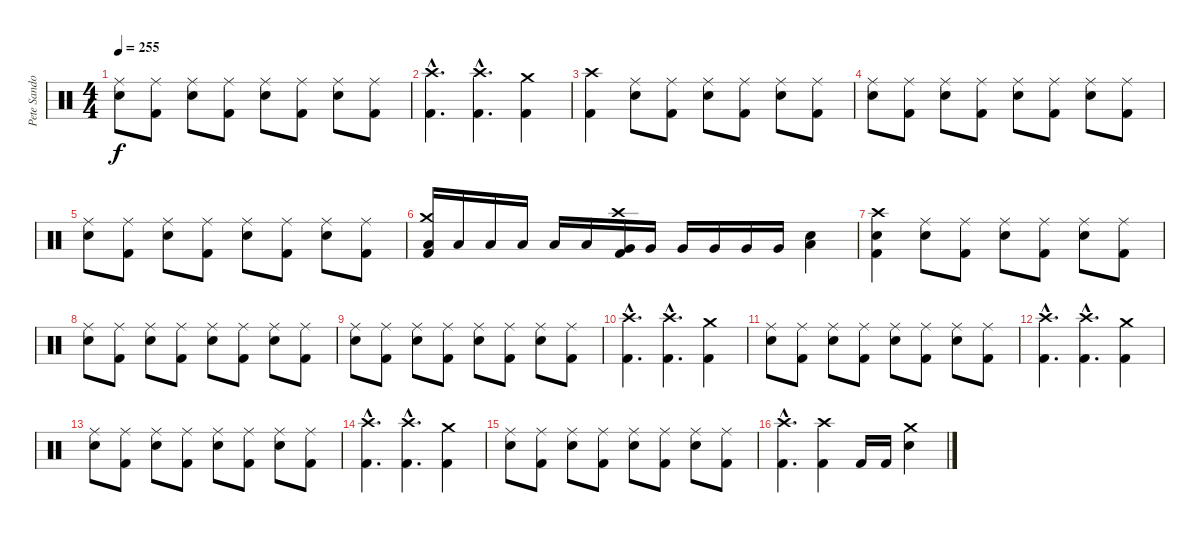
\track ("Pete Sandoval" "Pete Sando") {instrument percussion}
\staff {score}
\articulation defaults
\ts (4 4)
\tempo 255
\clef neutral
\ks c
("Ride (middle)" "Electric Snare (hit)").8{dy f} ("Ride (middle)" "Kick (hit) 2").8 ("Ride (middle)" "Electric Snare (hit)").8 ("Ride (middle)" "Kick (hit) 2").8 ("Ride (middle)" "Electric Snare (hit)").8 ("Ride (middle)" "Kick (hit) 2").8 ("Ride (middle)" "Electric Snare (hit)").8 ("Ride (middle)" "Kick (hit) 2").8 |
("Crash high (hit)"{hac} "Kick (hit) 2"{hac}).4{d} ("Crash high (hit)"{hac} "Kick (hit) 2"{hac}).4{d} ("Crash medium (hit)" "Kick (hit) 2").4 |
("Crash high (hit)" "Kick (hit) 2").4 ("Ride (middle)" "Electric Snare (hit)").8 ("Ride (middle)" "Kick (hit) 2").8 ("Ride (middle)" "Electric Snare (hit)").8 ("Ride (middle)" "Kick (hit) 2").8 ("Ride (middle)" "Electric Snare (hit)").8 ("Ride (middle)" "Kick (hit) 2").8 |
("Ride (middle)" "Electric Snare (hit)").8 ("Ride (middle)" "Kick (hit) 2").8 ("Ride (middle)" "Electric Snare (hit)").8 ("Ride (middle)" "Kick (hit) 2").8 ("Ride (middle)" "Electric Snare (hit)").8 ("Ride (middle)" "Kick (hit) 2").8 ("Ride (middle)" "Electric Snare (hit)").8 ("Ride (middle)" "Kick (hit) 2").8 |
("Ride (middle)" "Electric Snare (hit)").8 ("Ride (middle)" "Kick (hit) 2").8 ("Ride (middle)" "Electric Snare (hit)").8 ("Ride (middle)" "Kick (hit) 2").8 ("Ride (middle)" "Electric Snare (hit)").8 ("Ride (middle)" "Kick (hit) 2").8 ("Ride (middle)" "Electric Snare (hit)").8 ("Ride (middle)" "Kick (hit) 2").8 |
("Crash medium (hit)" "Kick (hit) 2" "Low Tom (hit)").16 "Low Tom (hit)".16 "Low Tom (hit)".16 "Low Tom (hit)".16 "Low Tom (hit)".16 "Low Tom (hit)".16 ("Crash high (hit)" "Kick (hit) 2" "Very Low Tom (hit)").16 "Very Low Tom (hit)".16 "Very Low Tom (hit)".16 "Very Low Tom (hit)".16 "Very Low Tom (hit)".16 "Very Low Tom (hit)".16 ("Low Tom (hit)" "Electric Snare (hit)").4 |
("Crash high (hit)" "Electric Snare (hit)" "Kick (hit) 2").4 ("Ride (middle)" "Electric Snare (hit)").8 ("Ride (middle)" "Kick (hit) 2").8 ("Ride (middle)" "Electric Snare (hit)").8 ("Ride (middle)" "Kick (hit) 2").8 ("Ride (middle)" "Electric Snare (hit)").8 ("Ride (middle)" "Kick (hit) 2").8 |
("Ride (middle)" "Electric Snare (hit)").8 ("Ride (middle)" "Kick (hit) 2").8 ("Ride (middle)" "Electric Snare (hit)").8 ("Ride (middle)" "Kick (hit) 2").8 ("Ride (middle)" "Electric Snare (hit)").8 ("Ride (middle)" "Kick (hit) 2").8 ("Ride (middle)" "Electric Snare (hit)").8 ("Ride (middle)" "Kick (hit) 2").8 |
("Ride (middle)" "Electric Snare (hit)").8 ("Ride (middle)" "Kick (hit) 2").8 ("Ride (middle)" "Electric Snare (hit)").8 ("Ride (middle)" "Kick (hit) 2").8 ("Ride (middle)" "Electric Snare (hit)").8 ("Ride (middle)" "Kick (hit) 2").8 ("Ride (middle)" "Electric Snare (hit)").8 ("Ride (middle)" "Kick (hit) 2").8 |
("Crash high (hit)"{hac} "Kick (hit) 2"{hac}).4{d} ("Crash high (hit)"{hac} "Kick (hit) 2"{hac}).4{d} ("Crash medium (hit)" "Kick (hit) 2").4 |
("Ride (middle)" "Electric Snare (hit)").8 ("Ride (middle)" "Kick (hit) 2").8 ("Ride (middle)" "Electric Snare (hit)").8 ("Ride (middle)" "Kick (hit) 2").8 ("Ride (middle)" "Electric Snare (hit)").8 ("Ride (middle)" "Kick (hit) 2").8 ("Ride (middle)" "Electric Snare (hit)").8 ("Ride (middle)" "Kick (hit) 2").8 |
("Crash high (hit)"{hac} "Kick (hit) 2"{hac}).4{d} ("Crash high (hit)"{hac} "Kick (hit) 2"{hac}).4{d} ("Crash medium (hit)" "Kick (hit) 2").4 |
("Ride (middle)" "Electric Snare (hit)").8 ("Ride (middle)" "Kick (hit) 2").8 ("Ride (middle)" "Electric Snare (hit)").8 ("Ride (middle)" "Kick (hit) 2").8 ("Ride (middle)" "Electric Snare (hit)").8 ("Ride (middle)" "Kick (hit) 2").8 ("Ride (middle)" "Electric Snare (hit)").8 ("Ride (middle)" "Kick (hit) 2").8 |
("Crash high (hit)"{hac} "Kick (hit) 2"{hac}).4{d} ("Crash high (hit)"{hac} "Kick (hit) 2"{hac}).4{d} ("Crash medium (hit)" "Kick (hit) 2").4 |
("Ride (middle)" "Electric Snare (hit)").8 ("Ride (middle)" "Kick (hit) 2").8 ("Ride (middle)" "Electric Snare (hit)").8 ("Ride (middle)" "Kick (hit) 2").8 ("Ride (middle)" "Electric Snare (hit)").8 ("Ride (middle)" "Kick (hit) 2").8 ("Ride (middle)" "Electric Snare (hit)").8 ("Ride (middle)" "Kick (hit) 2").8 |
("Crash high (hit)"{hac} "Kick (hit) 2"{hac}).4{d} ("Crash high (hit)" "Kick (hit) 2").4 "Kick (hit) 2".16 "Kick (hit) 2".16 ("Crash medium (hit)" "Electric Snare (hit)").4
